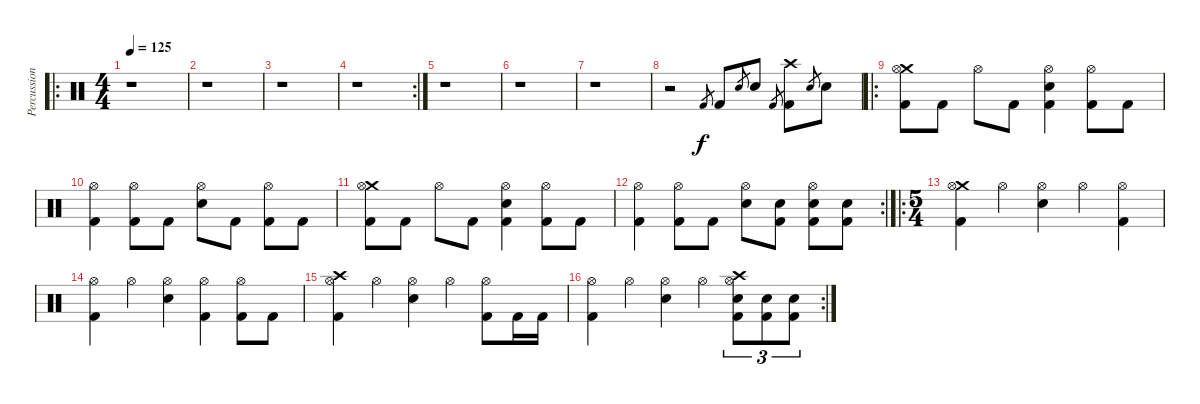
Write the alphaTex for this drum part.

\track ("Percussion" "Percussion") {instrument percussion}
\staff {score}
\articulation defaults
\ro
\ts (4 4)
\tempo 125
\clef neutral
\ks c
r.1{dy f} |
r.1 |
r.1 |
\rc 2
r.1 |
r.1 |
r.1 |
r.1 |
r.2 "Kick (hit) 2".8{gr} "Kick (hit) 2".8 "Electric Snare (hit)".8{gr} "Electric Snare (hit)".8 "Kick (hit) 2".8{gr} ("Crash high (hit)" "Kick (hit) 2").8 "Electric Snare (hit)".8{gr} "Electric Snare (hit)".8 |
\ro
("Crash medium (hit)" "Hi-Hat (open)" "Kick (hit) 2").8 "Kick (hit) 2".8 "Hi-Hat (open)".8 "Kick (hit) 2".8 ("Hi-Hat (open)" "Electric Snare (hit)" "Kick (hit) 2").4 ("Hi-Hat (open)" "Kick (hit) 2").8 "Kick (hit) 2".8 |
("Hi-Hat (open)" "Kick (hit) 2").4 ("Hi-Hat (open)" "Kick (hit) 2").8 "Kick (hit) 2".8 ("Hi-Hat (open)" "Electric Snare (hit)").8 "Kick (hit) 2".8 ("Hi-Hat (open)" "Kick (hit) 2").8 "Kick (hit) 2".8 |
("Crash medium (hit)" "Hi-Hat (open)" "Kick (hit) 2").8 "Kick (hit) 2".8 "Hi-Hat (open)".8 "Kick (hit) 2".8 ("Hi-Hat (open)" "Electric Snare (hit)" "Kick (hit) 2").4 ("Hi-Hat (open)" "Kick (hit) 2").8 "Kick (hit) 2".8 |
\rc 2
("Hi-Hat (open)" "Kick (hit) 2").4 ("Hi-Hat (open)" "Kick (hit) 2").8 "Kick (hit) 2".8 ("Hi-Hat (open)" "Electric Snare (hit)").8 ("Electric Snare (hit)" "Kick (hit) 2").8 ("Hi-Hat (open)" "Electric Snare (hit)" "Kick (hit) 2").8 ("Electric Snare (hit)" "Kick (hit) 2").8 |
\ro
\ts (5 4)
("Crash medium (hit)" "Hi-Hat (open)" "Kick (hit) 2").4 "Hi-Hat (open)".4 ("Hi-Hat (open)" "Electric Snare (hit)").4 "Hi-Hat (open)".4 ("Hi-Hat (open)" "Kick (hit) 2").4 |
("Hi-Hat (open)" "Kick (hit) 2").4 "Hi-Hat (open)".4 ("Hi-Hat (open)" "Electric Snare (hit)").4 ("Hi-Hat (open)" "Kick (hit) 2").4 ("Hi-Hat (open)" "Kick (hit) 2").8 "Kick (hit) 2".8 |
("Crash high (hit)" "Hi-Hat (open)" "Kick (hit) 2").4 "Hi-Hat (open)".4 ("Hi-Hat (open)" "Electric Snare (hit)").4 "Hi-Hat (open)".4 ("Hi-Hat (open)" "Kick (hit) 2").8 "Kick (hit) 2".16 "Kick (hit) 2".16 |
\rc 2
("Hi-Hat (open)" "Kick (hit) 2").4 "Hi-Hat (open)".4 ("Hi-Hat (open)" "Electric Snare (hit)").4 "Hi-Hat (open)".4 ("Crash high (hit)" "Hi-Hat (open)" "Electric Snare (hit)" "Kick (hit) 2").8{tu (3 2)} ("Electric Snare (hit)" "Kick (hit) 2").8{tu (3 2)} ("Electric Snare (hit)" "Kick (hit) 2").8{tu (3 2)}
